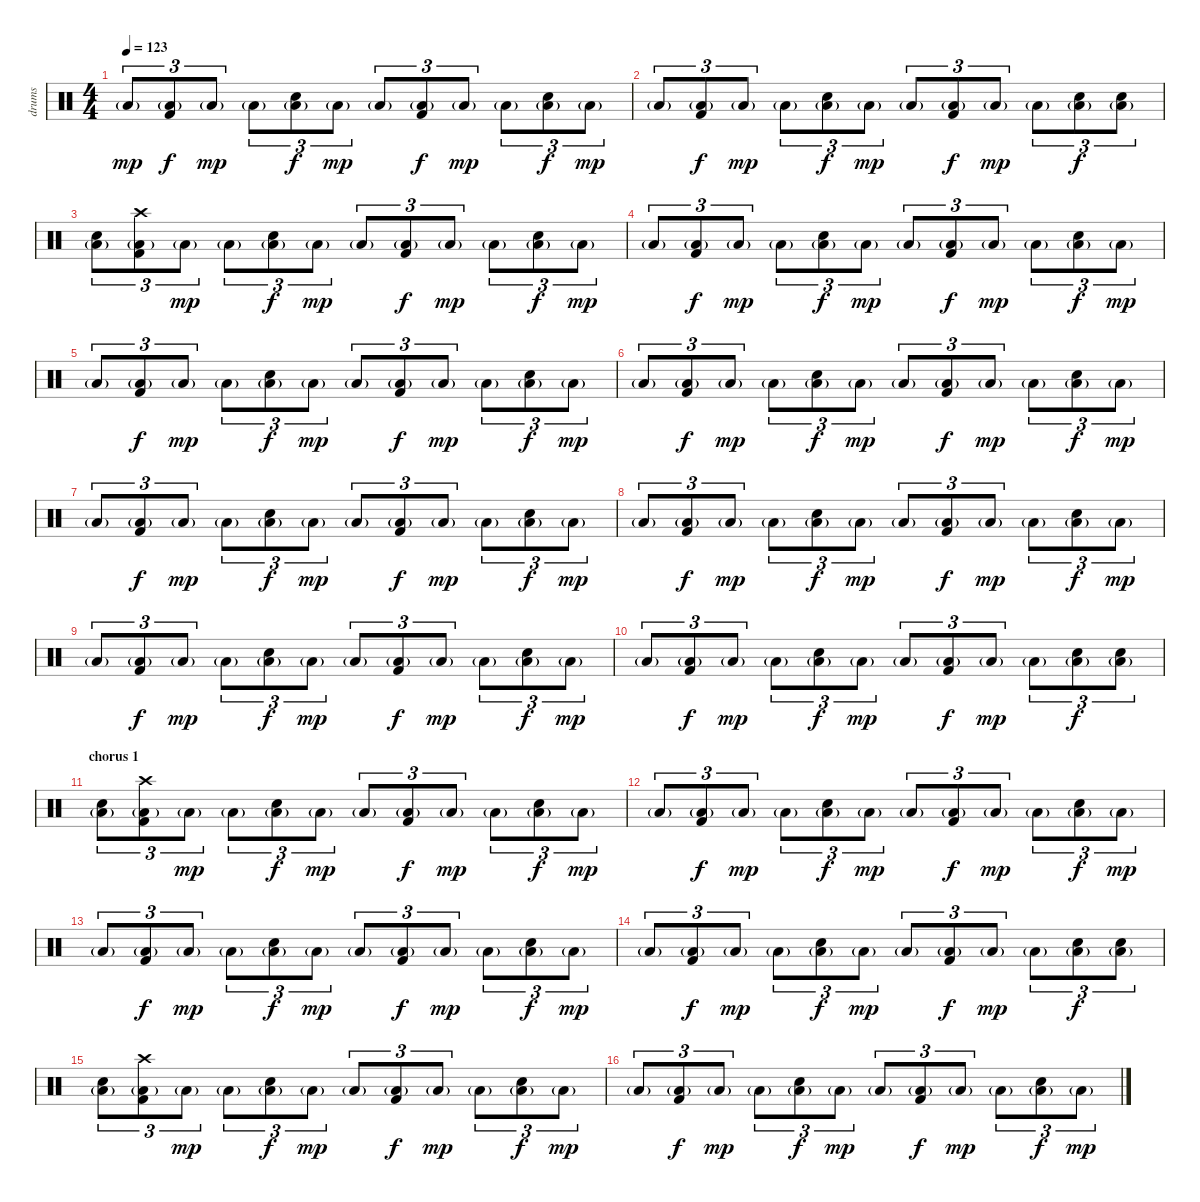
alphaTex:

\track ("drums" "drums") {instrument percussion}
\staff {score}
\articulation defaults
\ts (4 4)
\tempo 123
\clef neutral
\ks c "Low Floor Tom (hit)"{g}.8{tu (3 2) txt "" dy mp}
("Low Floor Tom (hit)"{g} "Kick (hit) 2").8{tu (3 2) txt "" dy f} "Low Floor Tom (hit)"{g}.8{tu (3 2) txt "" dy mp} "Low Floor Tom (hit)"{g}.8{tu (3 2) txt ""} ("Low Floor Tom (hit)"{g} "Electric Snare (hit)").8{tu (3 2) txt "" dy f} "Low Floor Tom (hit)"{g}.8{tu (3 2) txt "" dy mp} "Low Floor Tom (hit)"{g}.8{tu (3 2) txt ""} ("Low Floor Tom (hit)"{g} "Kick (hit) 2").8{tu (3 2) txt "" dy f} "Low Floor Tom (hit)"{g}.8{tu (3 2) txt "" dy mp} "Low Floor Tom (hit)"{g}.8{tu (3 2) txt ""} ("Low Floor Tom (hit)"{g} "Electric Snare (hit)").8{tu (3 2) txt "" dy f} "Low Floor Tom (hit)"{g}.8{tu (3 2) txt "" dy mp} |
"Low Floor Tom (hit)"{g}.8{tu (3 2) txt ""} ("Low Floor Tom (hit)"{g} "Kick (hit) 2").8{tu (3 2) txt "" dy f} "Low Floor Tom (hit)"{g}.8{tu (3 2) txt "" dy mp} "Low Floor Tom (hit)"{g}.8{tu (3 2) txt ""} ("Low Floor Tom (hit)"{g} "Electric Snare (hit)").8{tu (3 2) txt "" dy f} "Low Floor Tom (hit)"{g}.8{tu (3 2) txt "" dy mp} "Low Floor Tom (hit)"{g}.8{tu (3 2) txt ""} ("Low Floor Tom (hit)"{g} "Kick (hit) 2").8{tu (3 2) txt "" dy f} "Low Floor Tom (hit)"{g}.8{tu (3 2) txt "" dy mp} "Low Floor Tom (hit)"{g}.8{tu (3 2) txt ""} ("Low Floor Tom (hit)"{g} "Electric Snare (hit)").8{tu (3 2) txt "" dy f} ("Low Floor Tom (hit)"{g} "Electric Snare (hit)").8{tu (3 2) txt ""} |
("Low Floor Tom (hit)"{g} "Electric Snare (hit)").8{tu (3 2) txt ""} ("Low Floor Tom (hit)"{g} "Kick (hit) 2" "Crash high (hit)").8{tu (3 2) txt ""} "Low Floor Tom (hit)"{g}.8{tu (3 2) txt "" dy mp} "Low Floor Tom (hit)"{g}.8{tu (3 2) txt ""} ("Low Floor Tom (hit)"{g} "Electric Snare (hit)").8{tu (3 2) txt "" dy f} "Low Floor Tom (hit)"{g}.8{tu (3 2) txt "" dy mp} "Low Floor Tom (hit)"{g}.8{tu (3 2) txt ""} ("Low Floor Tom (hit)"{g} "Kick (hit) 2").8{tu (3 2) txt "" dy f} "Low Floor Tom (hit)"{g}.8{tu (3 2) txt "" dy mp} "Low Floor Tom (hit)"{g}.8{tu (3 2) txt ""} ("Low Floor Tom (hit)"{g} "Electric Snare (hit)").8{tu (3 2) txt "" dy f} "Low Floor Tom (hit)"{g}.8{tu (3 2) txt "" dy mp} |
"Low Floor Tom (hit)"{g}.8{tu (3 2) txt ""} ("Low Floor Tom (hit)"{g} "Kick (hit) 2").8{tu (3 2) txt "" dy f} "Low Floor Tom (hit)"{g}.8{tu (3 2) txt "" dy mp} "Low Floor Tom (hit)"{g}.8{tu (3 2) txt ""} ("Low Floor Tom (hit)"{g} "Electric Snare (hit)").8{tu (3 2) txt "" dy f} "Low Floor Tom (hit)"{g}.8{tu (3 2) txt "" dy mp} "Low Floor Tom (hit)"{g}.8{tu (3 2) txt ""} ("Low Floor Tom (hit)"{g} "Kick (hit) 2").8{tu (3 2) txt "" dy f} "Low Floor Tom (hit)"{g}.8{tu (3 2) txt "" dy mp} "Low Floor Tom (hit)"{g}.8{tu (3 2) txt ""} ("Low Floor Tom (hit)"{g} "Electric Snare (hit)").8{tu (3 2) txt "" dy f} "Low Floor Tom (hit)"{g}.8{tu (3 2) txt "" dy mp} |
"Low Floor Tom (hit)"{g}.8{tu (3 2) txt ""} ("Low Floor Tom (hit)"{g} "Kick (hit) 2").8{tu (3 2) txt "" dy f} "Low Floor Tom (hit)"{g}.8{tu (3 2) txt "" dy mp} "Low Floor Tom (hit)"{g}.8{tu (3 2) txt ""} ("Low Floor Tom (hit)"{g} "Electric Snare (hit)").8{tu (3 2) txt "" dy f} "Low Floor Tom (hit)"{g}.8{tu (3 2) txt "" dy mp} "Low Floor Tom (hit)"{g}.8{tu (3 2) txt ""} ("Low Floor Tom (hit)"{g} "Kick (hit) 2").8{tu (3 2) txt "" dy f} "Low Floor Tom (hit)"{g}.8{tu (3 2) txt "" dy mp} "Low Floor Tom (hit)"{g}.8{tu (3 2) txt ""} ("Low Floor Tom (hit)"{g} "Electric Snare (hit)").8{tu (3 2) txt "" dy f} "Low Floor Tom (hit)"{g}.8{tu (3 2) txt "" dy mp} |
"Low Floor Tom (hit)"{g}.8{tu (3 2) txt ""} ("Low Floor Tom (hit)"{g} "Kick (hit) 2").8{tu (3 2) txt "" dy f} "Low Floor Tom (hit)"{g}.8{tu (3 2) txt "" dy mp} "Low Floor Tom (hit)"{g}.8{tu (3 2) txt ""} ("Low Floor Tom (hit)"{g} "Electric Snare (hit)").8{tu (3 2) txt "" dy f} "Low Floor Tom (hit)"{g}.8{tu (3 2) txt "" dy mp} "Low Floor Tom (hit)"{g}.8{tu (3 2) txt ""} ("Low Floor Tom (hit)"{g} "Kick (hit) 2").8{tu (3 2) txt "" dy f} "Low Floor Tom (hit)"{g}.8{tu (3 2) txt "" dy mp} "Low Floor Tom (hit)"{g}.8{tu (3 2) txt ""} ("Low Floor Tom (hit)"{g} "Electric Snare (hit)").8{tu (3 2) txt "" dy f} "Low Floor Tom (hit)"{g}.8{tu (3 2) txt "" dy mp} |
"Low Floor Tom (hit)"{g}.8{tu (3 2) txt ""} ("Low Floor Tom (hit)"{g} "Kick (hit) 2").8{tu (3 2) txt "" dy f} "Low Floor Tom (hit)"{g}.8{tu (3 2) txt "" dy mp} "Low Floor Tom (hit)"{g}.8{tu (3 2) txt ""} ("Low Floor Tom (hit)"{g} "Electric Snare (hit)").8{tu (3 2) txt "" dy f} "Low Floor Tom (hit)"{g}.8{tu (3 2) txt "" dy mp} "Low Floor Tom (hit)"{g}.8{tu (3 2) txt ""} ("Low Floor Tom (hit)"{g} "Kick (hit) 2").8{tu (3 2) txt "" dy f} "Low Floor Tom (hit)"{g}.8{tu (3 2) txt "" dy mp} "Low Floor Tom (hit)"{g}.8{tu (3 2) txt ""} ("Low Floor Tom (hit)"{g} "Electric Snare (hit)").8{tu (3 2) txt "" dy f} "Low Floor Tom (hit)"{g}.8{tu (3 2) txt "" dy mp} |
"Low Floor Tom (hit)"{g}.8{tu (3 2) txt ""} ("Low Floor Tom (hit)"{g} "Kick (hit) 2").8{tu (3 2) txt "" dy f} "Low Floor Tom (hit)"{g}.8{tu (3 2) txt "" dy mp} "Low Floor Tom (hit)"{g}.8{tu (3 2) txt ""} ("Low Floor Tom (hit)"{g} "Electric Snare (hit)").8{tu (3 2) txt "" dy f} "Low Floor Tom (hit)"{g}.8{tu (3 2) txt "" dy mp} "Low Floor Tom (hit)"{g}.8{tu (3 2) txt ""} ("Low Floor Tom (hit)"{g} "Kick (hit) 2").8{tu (3 2) txt "" dy f} "Low Floor Tom (hit)"{g}.8{tu (3 2) txt "" dy mp} "Low Floor Tom (hit)"{g}.8{tu (3 2) txt ""} ("Low Floor Tom (hit)"{g} "Electric Snare (hit)").8{tu (3 2) txt "" dy f} "Low Floor Tom (hit)"{g}.8{tu (3 2) txt "" dy mp} |
"Low Floor Tom (hit)"{g}.8{tu (3 2) txt ""} ("Low Floor Tom (hit)"{g} "Kick (hit) 2").8{tu (3 2) txt "" dy f} "Low Floor Tom (hit)"{g}.8{tu (3 2) txt "" dy mp} "Low Floor Tom (hit)"{g}.8{tu (3 2) txt ""} ("Low Floor Tom (hit)"{g} "Electric Snare (hit)").8{tu (3 2) txt "" dy f} "Low Floor Tom (hit)"{g}.8{tu (3 2) txt "" dy mp} "Low Floor Tom (hit)"{g}.8{tu (3 2) txt ""} ("Low Floor Tom (hit)"{g} "Kick (hit) 2").8{tu (3 2) txt "" dy f} "Low Floor Tom (hit)"{g}.8{tu (3 2) txt "" dy mp} "Low Floor Tom (hit)"{g}.8{tu (3 2) txt ""} ("Low Floor Tom (hit)"{g} "Electric Snare (hit)").8{tu (3 2) txt "" dy f} "Low Floor Tom (hit)"{g}.8{tu (3 2) txt "" dy mp} |
"Low Floor Tom (hit)"{g}.8{tu (3 2) txt ""} ("Low Floor Tom (hit)"{g} "Kick (hit) 2").8{tu (3 2) txt "" dy f} "Low Floor Tom (hit)"{g}.8{tu (3 2) txt "" dy mp} "Low Floor Tom (hit)"{g}.8{tu (3 2) txt ""} ("Low Floor Tom (hit)"{g} "Electric Snare (hit)").8{tu (3 2) txt "" dy f} "Low Floor Tom (hit)"{g}.8{tu (3 2) txt "" dy mp} "Low Floor Tom (hit)"{g}.8{tu (3 2) txt ""} ("Low Floor Tom (hit)"{g} "Kick (hit) 2").8{tu (3 2) txt "" dy f} "Low Floor Tom (hit)"{g}.8{tu (3 2) txt "" dy mp} "Low Floor Tom (hit)"{g}.8{tu (3 2) txt ""} ("Low Floor Tom (hit)"{g} "Electric Snare (hit)").8{tu (3 2) txt "" dy f} ("Low Floor Tom (hit)"{g} "Electric Snare (hit)").8{tu (3 2) txt ""} |
\section ("" "chorus 1")
("Low Floor Tom (hit)"{g} "Electric Snare (hit)").8{tu (3 2) txt ""} ("Low Floor Tom (hit)"{g} "Kick (hit) 2" "Crash high (hit)").8{tu (3 2) txt ""} "Low Floor Tom (hit)"{g}.8{tu (3 2) txt "" dy mp} "Low Floor Tom (hit)"{g}.8{tu (3 2) txt ""} ("Low Floor Tom (hit)"{g} "Electric Snare (hit)").8{tu (3 2) txt "" dy f} "Low Floor Tom (hit)"{g}.8{tu (3 2) txt "" dy mp} "Low Floor Tom (hit)"{g}.8{tu (3 2) txt ""} ("Low Floor Tom (hit)"{g} "Kick (hit) 2").8{tu (3 2) txt "" dy f} "Low Floor Tom (hit)"{g}.8{tu (3 2) txt "" dy mp} "Low Floor Tom (hit)"{g}.8{tu (3 2) txt ""} ("Low Floor Tom (hit)"{g} "Electric Snare (hit)").8{tu (3 2) txt "" dy f} "Low Floor Tom (hit)"{g}.8{tu (3 2) txt "" dy mp} |
"Low Floor Tom (hit)"{g}.8{tu (3 2) txt ""} ("Low Floor Tom (hit)"{g} "Kick (hit) 2").8{tu (3 2) txt "" dy f} "Low Floor Tom (hit)"{g}.8{tu (3 2) txt "" dy mp} "Low Floor Tom (hit)"{g}.8{tu (3 2) txt ""} ("Low Floor Tom (hit)"{g} "Electric Snare (hit)").8{tu (3 2) txt "" dy f} "Low Floor Tom (hit)"{g}.8{tu (3 2) txt "" dy mp} "Low Floor Tom (hit)"{g}.8{tu (3 2) txt ""} ("Low Floor Tom (hit)"{g} "Kick (hit) 2").8{tu (3 2) txt "" dy f} "Low Floor Tom (hit)"{g}.8{tu (3 2) txt "" dy mp} "Low Floor Tom (hit)"{g}.8{tu (3 2) txt ""} ("Low Floor Tom (hit)"{g} "Electric Snare (hit)").8{tu (3 2) txt "" dy f} "Low Floor Tom (hit)"{g}.8{tu (3 2) txt "" dy mp} |
"Low Floor Tom (hit)"{g}.8{tu (3 2) txt ""} ("Low Floor Tom (hit)"{g} "Kick (hit) 2").8{tu (3 2) txt "" dy f} "Low Floor Tom (hit)"{g}.8{tu (3 2) txt "" dy mp} "Low Floor Tom (hit)"{g}.8{tu (3 2) txt ""} ("Low Floor Tom (hit)"{g} "Electric Snare (hit)").8{tu (3 2) txt "" dy f} "Low Floor Tom (hit)"{g}.8{tu (3 2) txt "" dy mp} "Low Floor Tom (hit)"{g}.8{tu (3 2) txt ""} ("Low Floor Tom (hit)"{g} "Kick (hit) 2").8{tu (3 2) txt "" dy f} "Low Floor Tom (hit)"{g}.8{tu (3 2) txt "" dy mp} "Low Floor Tom (hit)"{g}.8{tu (3 2) txt ""} ("Low Floor Tom (hit)"{g} "Electric Snare (hit)").8{tu (3 2) txt "" dy f} "Low Floor Tom (hit)"{g}.8{tu (3 2) txt "" dy mp} |
"Low Floor Tom (hit)"{g}.8{tu (3 2) txt ""} ("Low Floor Tom (hit)"{g} "Kick (hit) 2").8{tu (3 2) txt "" dy f} "Low Floor Tom (hit)"{g}.8{tu (3 2) txt "" dy mp} "Low Floor Tom (hit)"{g}.8{tu (3 2) txt ""} ("Low Floor Tom (hit)"{g} "Electric Snare (hit)").8{tu (3 2) txt "" dy f} "Low Floor Tom (hit)"{g}.8{tu (3 2) txt "" dy mp} "Low Floor Tom (hit)"{g}.8{tu (3 2) txt ""} ("Low Floor Tom (hit)"{g} "Kick (hit) 2").8{tu (3 2) txt "" dy f} "Low Floor Tom (hit)"{g}.8{tu (3 2) txt "" dy mp} "Low Floor Tom (hit)"{g}.8{tu (3 2) txt ""} ("Low Floor Tom (hit)"{g} "Electric Snare (hit)").8{tu (3 2) txt "" dy f} ("Low Floor Tom (hit)"{g} "Electric Snare (hit)").8{tu (3 2) txt ""} |
("Low Floor Tom (hit)"{g} "Electric Snare (hit)").8{tu (3 2) txt ""} ("Low Floor Tom (hit)"{g} "Kick (hit) 2" "Crash high (hit)").8{tu (3 2) txt ""} "Low Floor Tom (hit)"{g}.8{tu (3 2) txt "" dy mp} "Low Floor Tom (hit)"{g}.8{tu (3 2) txt ""} ("Low Floor Tom (hit)"{g} "Electric Snare (hit)").8{tu (3 2) txt "" dy f} "Low Floor Tom (hit)"{g}.8{tu (3 2) txt "" dy mp} "Low Floor Tom (hit)"{g}.8{tu (3 2) txt ""} ("Low Floor Tom (hit)"{g} "Kick (hit) 2").8{tu (3 2) txt "" dy f} "Low Floor Tom (hit)"{g}.8{tu (3 2) txt "" dy mp} "Low Floor Tom (hit)"{g}.8{tu (3 2) txt ""} ("Low Floor Tom (hit)"{g} "Electric Snare (hit)").8{tu (3 2) txt "" dy f} "Low Floor Tom (hit)"{g}.8{tu (3 2) txt "" dy mp} |
"Low Floor Tom (hit)"{g}.8{tu (3 2) txt ""} ("Low Floor Tom (hit)"{g} "Kick (hit) 2").8{tu (3 2) txt "" dy f} "Low Floor Tom (hit)"{g}.8{tu (3 2) txt "" dy mp} "Low Floor Tom (hit)"{g}.8{tu (3 2) txt ""} ("Low Floor Tom (hit)"{g} "Electric Snare (hit)").8{tu (3 2) txt "" dy f} "Low Floor Tom (hit)"{g}.8{tu (3 2) txt "" dy mp} "Low Floor Tom (hit)"{g}.8{tu (3 2) txt ""} ("Low Floor Tom (hit)"{g} "Kick (hit) 2").8{tu (3 2) txt "" dy f} "Low Floor Tom (hit)"{g}.8{tu (3 2) txt "" dy mp} "Low Floor Tom (hit)"{g}.8{tu (3 2) txt ""} ("Low Floor Tom (hit)"{g} "Electric Snare (hit)").8{tu (3 2) txt "" dy f} "Low Floor Tom (hit)"{g}.8{tu (3 2) txt "" dy mp}
